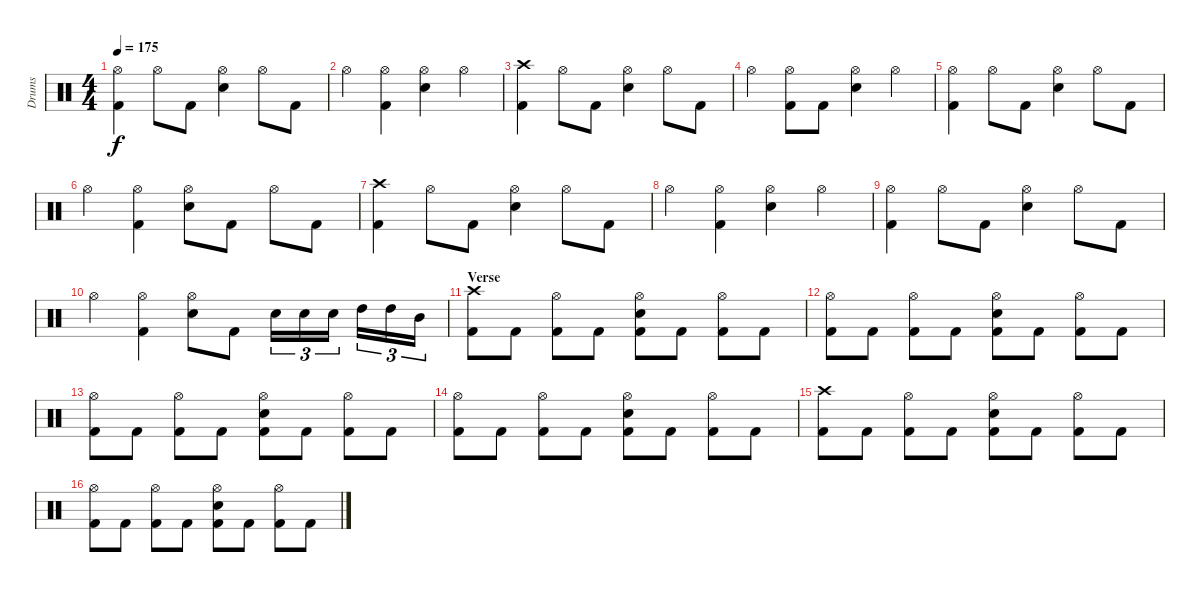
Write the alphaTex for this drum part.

\track ("Drums" "Drums") {instrument percussion}
\staff {score}
\articulation defaults
\ts (4 4)
\tempo 175
\clef neutral
\ks c
("Hi-Hat (open)" "Kick (hit) 2").4{dy f} "Hi-Hat (open)".8 "Kick (hit) 2".8 ("Hi-Hat (open)" "Electric Snare (hit)").4 "Hi-Hat (open)".8 "Kick (hit) 2".8 |
"Hi-Hat (open)".4 ("Hi-Hat (open)" "Kick (hit) 2").4 ("Hi-Hat (open)" "Electric Snare (hit)").4 "Hi-Hat (open)".4 |
\section ("" "")
("Crash high (hit)" "Kick (hit) 2").4 "Hi-Hat (open)".8 "Kick (hit) 2".8 ("Hi-Hat (open)" "Electric Snare (hit)").4 "Hi-Hat (open)".8 "Kick (hit) 2".8 |
"Hi-Hat (open)".4 ("Hi-Hat (open)" "Kick (hit) 2").8 "Kick (hit) 2".8 ("Hi-Hat (open)" "Electric Snare (hit)").4 "Hi-Hat (open)".4 |
("Hi-Hat (open)" "Kick (hit) 2").4 "Hi-Hat (open)".8 "Kick (hit) 2".8 ("Hi-Hat (open)" "Electric Snare (hit)").4 "Hi-Hat (open)".8 "Kick (hit) 2".8 |
"Hi-Hat (open)".4 ("Hi-Hat (open)" "Kick (hit) 2").4 ("Hi-Hat (open)" "Electric Snare (hit)").8 "Kick (hit) 2".8 "Hi-Hat (open)".8 "Kick (hit) 2".8 |
("Crash high (hit)" "Kick (hit) 2").4 "Hi-Hat (open)".8 "Kick (hit) 2".8 ("Hi-Hat (open)" "Electric Snare (hit)").4 "Hi-Hat (open)".8 "Kick (hit) 2".8 |
"Hi-Hat (open)".4 ("Hi-Hat (open)" "Kick (hit) 2").4 ("Hi-Hat (open)" "Electric Snare (hit)").4 "Hi-Hat (open)".4 |
("Hi-Hat (open)" "Kick (hit) 2").4 "Hi-Hat (open)".8 "Kick (hit) 2".8 ("Hi-Hat (open)" "Electric Snare (hit)").4 "Hi-Hat (open)".8 "Kick (hit) 2".8 |
"Hi-Hat (open)".4 ("Hi-Hat (open)" "Kick (hit) 2").4 ("Hi-Hat (open)" "Electric Snare (hit)").8 "Kick (hit) 2".8 "Electric Snare (hit)".16{tu (3 2)} "Electric Snare (hit)".16{tu (3 2)} "Electric Snare (hit)".16{tu (3 2)} "High Tom (hit)".16{tu (3 2)} "High Tom (hit)".16{tu (3 2)} "Mid Tom (hit)".16{tu (3 2)} |
\section ("" "Verse")
("Crash high (hit)" "Kick (hit) 2").8 "Kick (hit) 2".8 ("Hi-Hat (open)" "Kick (hit) 2").8 "Kick (hit) 2".8 ("Hi-Hat (open)" "Electric Snare (hit)" "Kick (hit) 2").8 "Kick (hit) 2".8 ("Hi-Hat (open)" "Kick (hit) 2").8 "Kick (hit) 2".8 |
("Hi-Hat (open)" "Kick (hit) 2").8 "Kick (hit) 2".8 ("Hi-Hat (open)" "Kick (hit) 2").8 "Kick (hit) 2".8 ("Hi-Hat (open)" "Electric Snare (hit)" "Kick (hit) 2").8 "Kick (hit) 2".8 ("Hi-Hat (open)" "Kick (hit) 2").8 "Kick (hit) 2".8 |
("Hi-Hat (open)" "Kick (hit) 2").8 "Kick (hit) 2".8 ("Hi-Hat (open)" "Kick (hit) 2").8 "Kick (hit) 2".8 ("Hi-Hat (open)" "Electric Snare (hit)" "Kick (hit) 2").8 "Kick (hit) 2".8 ("Hi-Hat (open)" "Kick (hit) 2").8 "Kick (hit) 2".8 |
("Hi-Hat (open)" "Kick (hit) 2").8 "Kick (hit) 2".8 ("Hi-Hat (open)" "Kick (hit) 2").8 "Kick (hit) 2".8 ("Hi-Hat (open)" "Electric Snare (hit)" "Kick (hit) 2").8 "Kick (hit) 2".8 ("Hi-Hat (open)" "Kick (hit) 2").8 "Kick (hit) 2".8 |
("Crash high (hit)" "Kick (hit) 2").8 "Kick (hit) 2".8 ("Hi-Hat (open)" "Kick (hit) 2").8 "Kick (hit) 2".8 ("Hi-Hat (open)" "Electric Snare (hit)" "Kick (hit) 2").8 "Kick (hit) 2".8 ("Hi-Hat (open)" "Kick (hit) 2").8 "Kick (hit) 2".8 |
("Hi-Hat (open)" "Kick (hit) 2").8 "Kick (hit) 2".8 ("Hi-Hat (open)" "Kick (hit) 2").8 "Kick (hit) 2".8 ("Hi-Hat (open)" "Electric Snare (hit)" "Kick (hit) 2").8 "Kick (hit) 2".8 ("Hi-Hat (open)" "Kick (hit) 2").8 "Kick (hit) 2".8
